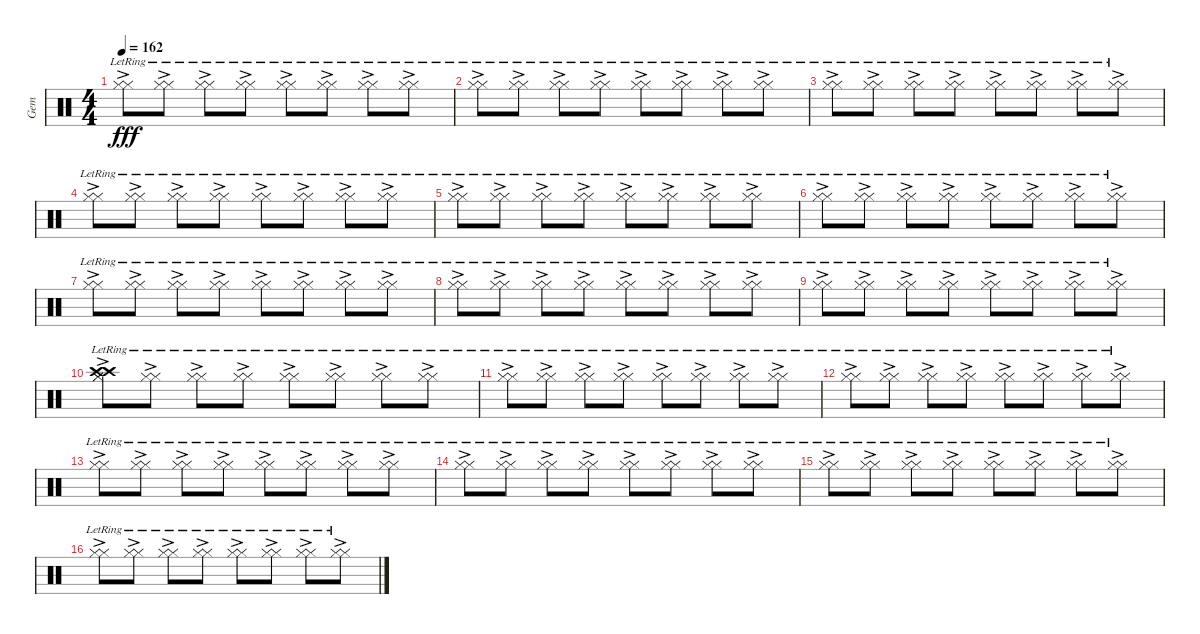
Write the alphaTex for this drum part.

\track ("Gem" "Gem") {instrument percussion}
\staff {score}
\articulation defaults
\ts (4 4)
\tempo 162
\clef neutral
\ks c
("Hi-Hat (closed)"{ac lr} "Hi-Hat (closed)"{lr}).8{dy fff} ("Hi-Hat (closed)"{ac lr} "Hi-Hat (closed)"{lr}).8 ("Hi-Hat (closed)"{ac lr} "Hi-Hat (closed)"{lr}).8 ("Hi-Hat (closed)"{ac lr} "Hi-Hat (closed)"{lr}).8 ("Hi-Hat (closed)"{ac lr} "Hi-Hat (closed)"{lr}).8 ("Hi-Hat (closed)"{ac lr} "Hi-Hat (closed)"{lr}).8 ("Hi-Hat (closed)"{ac lr} "Hi-Hat (closed)"{lr}).8 ("Hi-Hat (closed)"{ac lr} "Hi-Hat (closed)"{lr}).8 |
("Hi-Hat (closed)"{ac lr} "Hi-Hat (closed)"{lr}).8 ("Hi-Hat (closed)"{ac lr} "Hi-Hat (closed)"{lr}).8 ("Hi-Hat (closed)"{ac lr} "Hi-Hat (closed)"{lr}).8 ("Hi-Hat (closed)"{ac lr} "Hi-Hat (closed)"{lr}).8 ("Hi-Hat (closed)"{ac lr} "Hi-Hat (closed)"{lr}).8 ("Hi-Hat (closed)"{ac lr} "Hi-Hat (closed)"{lr}).8 ("Hi-Hat (closed)"{ac lr} "Hi-Hat (closed)"{lr}).8 ("Hi-Hat (closed)"{ac lr} "Hi-Hat (closed)"{lr}).8 |
("Hi-Hat (closed)"{ac lr} "Hi-Hat (closed)"{lr}).8 ("Hi-Hat (closed)"{ac lr} "Hi-Hat (closed)"{lr}).8 ("Hi-Hat (closed)"{ac lr} "Hi-Hat (closed)"{lr}).8 ("Hi-Hat (closed)"{ac lr} "Hi-Hat (closed)"{lr}).8 ("Hi-Hat (closed)"{ac lr} "Hi-Hat (closed)"{lr}).8 ("Hi-Hat (closed)"{ac lr} "Hi-Hat (closed)"{lr}).8 ("Hi-Hat (closed)"{ac lr} "Hi-Hat (closed)"{lr}).8 ("Hi-Hat (closed)"{ac lr} "Hi-Hat (closed)"{lr}).8 |
("Hi-Hat (closed)"{ac lr} "Hi-Hat (closed)"{lr}).8 ("Hi-Hat (closed)"{ac lr} "Hi-Hat (closed)"{lr}).8 ("Hi-Hat (closed)"{ac lr} "Hi-Hat (closed)"{lr}).8 ("Hi-Hat (closed)"{ac lr} "Hi-Hat (closed)"{lr}).8 ("Hi-Hat (closed)"{ac lr} "Hi-Hat (closed)"{lr}).8 ("Hi-Hat (closed)"{ac lr} "Hi-Hat (closed)"{lr}).8 ("Hi-Hat (closed)"{ac lr} "Hi-Hat (closed)"{lr}).8 ("Hi-Hat (closed)"{ac lr} "Hi-Hat (closed)"{lr}).8 |
("Hi-Hat (closed)"{ac lr} "Hi-Hat (closed)"{lr}).8 ("Hi-Hat (closed)"{ac lr} "Hi-Hat (closed)"{lr}).8 ("Hi-Hat (closed)"{ac lr} "Hi-Hat (closed)"{lr}).8 ("Hi-Hat (closed)"{ac lr} "Hi-Hat (closed)"{lr}).8 ("Hi-Hat (closed)"{ac lr} "Hi-Hat (closed)"{lr}).8 ("Hi-Hat (closed)"{ac lr} "Hi-Hat (closed)"{lr}).8 ("Hi-Hat (closed)"{ac lr} "Hi-Hat (closed)"{lr}).8 ("Hi-Hat (closed)"{ac lr} "Hi-Hat (closed)"{lr}).8 |
("Hi-Hat (closed)"{ac lr} "Hi-Hat (closed)"{lr}).8 ("Hi-Hat (closed)"{ac lr} "Hi-Hat (closed)"{lr}).8 ("Hi-Hat (closed)"{ac lr} "Hi-Hat (closed)"{lr}).8 ("Hi-Hat (closed)"{ac lr} "Hi-Hat (closed)"{lr}).8 ("Hi-Hat (closed)"{ac lr} "Hi-Hat (closed)"{lr}).8 ("Hi-Hat (closed)"{ac lr} "Hi-Hat (closed)"{lr}).8 ("Hi-Hat (closed)"{ac lr} "Hi-Hat (closed)"{lr}).8 ("Hi-Hat (closed)"{ac lr} "Hi-Hat (closed)"{lr}).8 |
("Hi-Hat (closed)"{ac lr} "Hi-Hat (closed)"{lr}).8 ("Hi-Hat (closed)"{ac lr} "Hi-Hat (closed)"{lr}).8 ("Hi-Hat (closed)"{ac lr} "Hi-Hat (closed)"{lr}).8 ("Hi-Hat (closed)"{ac lr} "Hi-Hat (closed)"{lr}).8 ("Hi-Hat (closed)"{ac lr} "Hi-Hat (closed)"{lr}).8 ("Hi-Hat (closed)"{ac lr} "Hi-Hat (closed)"{lr}).8 ("Hi-Hat (closed)"{ac lr} "Hi-Hat (closed)"{lr}).8 ("Hi-Hat (closed)"{ac lr} "Hi-Hat (closed)"{lr}).8 |
("Hi-Hat (closed)"{ac lr} "Hi-Hat (closed)"{lr}).8 ("Hi-Hat (closed)"{ac lr} "Hi-Hat (closed)"{lr}).8 ("Hi-Hat (closed)"{ac lr} "Hi-Hat (closed)"{lr}).8 ("Hi-Hat (closed)"{ac lr} "Hi-Hat (closed)"{lr}).8 ("Hi-Hat (closed)"{ac lr} "Hi-Hat (closed)"{lr}).8 ("Hi-Hat (closed)"{ac lr} "Hi-Hat (closed)"{lr}).8 ("Hi-Hat (closed)"{ac lr} "Hi-Hat (closed)"{lr}).8 ("Hi-Hat (closed)"{ac lr} "Hi-Hat (closed)"{lr}).8 |
("Hi-Hat (closed)"{ac lr} "Hi-Hat (closed)"{lr}).8 ("Hi-Hat (closed)"{ac lr} "Hi-Hat (closed)"{lr}).8 ("Hi-Hat (closed)"{ac lr} "Hi-Hat (closed)"{lr}).8 ("Hi-Hat (closed)"{ac lr} "Hi-Hat (closed)"{lr}).8 ("Hi-Hat (closed)"{ac lr} "Hi-Hat (closed)"{lr}).8 ("Hi-Hat (closed)"{ac lr} "Hi-Hat (closed)"{lr}).8 ("Hi-Hat (closed)"{ac lr} "Hi-Hat (closed)"{lr}).8 ("Hi-Hat (closed)"{ac lr} "Hi-Hat (closed)"{lr}).8 |
("Hi-Hat (closed)"{ac lr} "Hi-Hat (closed)"{lr} "Crash high (hit)"{ac lr} "Crash high (hit)"{ac lr}).8 ("Hi-Hat (closed)"{ac lr} "Hi-Hat (closed)"{lr}).8 ("Hi-Hat (closed)"{ac lr} "Hi-Hat (closed)"{lr}).8 ("Hi-Hat (closed)"{ac lr} "Hi-Hat (closed)"{lr}).8 ("Hi-Hat (closed)"{ac lr} "Hi-Hat (closed)"{lr}).8 ("Hi-Hat (closed)"{ac lr} "Hi-Hat (closed)"{lr}).8 ("Hi-Hat (closed)"{ac lr} "Hi-Hat (closed)"{lr}).8 ("Hi-Hat (closed)"{ac lr} "Hi-Hat (closed)"{lr}).8 |
("Hi-Hat (closed)"{ac lr} "Hi-Hat (closed)"{lr}).8 ("Hi-Hat (closed)"{ac lr} "Hi-Hat (closed)"{lr}).8 ("Hi-Hat (closed)"{ac lr} "Hi-Hat (closed)"{lr}).8 ("Hi-Hat (closed)"{ac lr} "Hi-Hat (closed)"{lr}).8 ("Hi-Hat (closed)"{ac lr} "Hi-Hat (closed)"{lr}).8 ("Hi-Hat (closed)"{ac lr} "Hi-Hat (closed)"{lr}).8 ("Hi-Hat (closed)"{ac lr} "Hi-Hat (closed)"{lr}).8 ("Hi-Hat (closed)"{ac lr} "Hi-Hat (closed)"{lr}).8 |
("Hi-Hat (closed)"{ac lr} "Hi-Hat (closed)"{lr}).8 ("Hi-Hat (closed)"{ac lr} "Hi-Hat (closed)"{lr}).8 ("Hi-Hat (closed)"{ac lr} "Hi-Hat (closed)"{lr}).8 ("Hi-Hat (closed)"{ac lr} "Hi-Hat (closed)"{lr}).8 ("Hi-Hat (closed)"{ac lr} "Hi-Hat (closed)"{lr}).8 ("Hi-Hat (closed)"{ac lr} "Hi-Hat (closed)"{lr}).8 ("Hi-Hat (closed)"{ac lr} "Hi-Hat (closed)"{lr}).8 ("Hi-Hat (closed)"{ac lr} "Hi-Hat (closed)"{lr}).8 |
("Hi-Hat (closed)"{ac lr} "Hi-Hat (closed)"{lr}).8 ("Hi-Hat (closed)"{ac lr} "Hi-Hat (closed)"{lr}).8 ("Hi-Hat (closed)"{ac lr} "Hi-Hat (closed)"{lr}).8 ("Hi-Hat (closed)"{ac lr} "Hi-Hat (closed)"{lr}).8 ("Hi-Hat (closed)"{ac lr} "Hi-Hat (closed)"{lr}).8 ("Hi-Hat (closed)"{ac lr} "Hi-Hat (closed)"{lr}).8 ("Hi-Hat (closed)"{ac lr} "Hi-Hat (closed)"{lr}).8 ("Hi-Hat (closed)"{ac lr} "Hi-Hat (closed)"{lr}).8 |
("Hi-Hat (closed)"{ac lr} "Hi-Hat (closed)"{lr}).8 ("Hi-Hat (closed)"{ac lr} "Hi-Hat (closed)"{lr}).8 ("Hi-Hat (closed)"{ac lr} "Hi-Hat (closed)"{lr}).8 ("Hi-Hat (closed)"{ac lr} "Hi-Hat (closed)"{lr}).8 ("Hi-Hat (closed)"{ac lr} "Hi-Hat (closed)"{lr}).8 ("Hi-Hat (closed)"{ac lr} "Hi-Hat (closed)"{lr}).8 ("Hi-Hat (closed)"{ac lr} "Hi-Hat (closed)"{lr}).8 ("Hi-Hat (closed)"{ac lr} "Hi-Hat (closed)"{lr}).8 |
("Hi-Hat (closed)"{ac lr} "Hi-Hat (closed)"{lr}).8 ("Hi-Hat (closed)"{ac lr} "Hi-Hat (closed)"{lr}).8 ("Hi-Hat (closed)"{ac lr} "Hi-Hat (closed)"{lr}).8 ("Hi-Hat (closed)"{ac lr} "Hi-Hat (closed)"{lr}).8 ("Hi-Hat (closed)"{ac lr} "Hi-Hat (closed)"{lr}).8 ("Hi-Hat (closed)"{ac lr} "Hi-Hat (closed)"{lr}).8 ("Hi-Hat (closed)"{ac lr} "Hi-Hat (closed)"{lr}).8 ("Hi-Hat (closed)"{ac lr} "Hi-Hat (closed)"{lr}).8 |
("Hi-Hat (closed)"{ac lr} "Hi-Hat (closed)"{lr}).8 ("Hi-Hat (closed)"{ac lr} "Hi-Hat (closed)"{lr}).8 ("Hi-Hat (closed)"{ac lr} "Hi-Hat (closed)"{lr}).8 ("Hi-Hat (closed)"{ac lr} "Hi-Hat (closed)"{lr}).8 ("Hi-Hat (closed)"{ac lr} "Hi-Hat (closed)"{lr}).8 ("Hi-Hat (closed)"{ac lr} "Hi-Hat (closed)"{lr}).8 ("Hi-Hat (closed)"{ac lr} "Hi-Hat (closed)"{lr}).8 ("Hi-Hat (closed)"{ac lr} "Hi-Hat (closed)"{lr}).8
